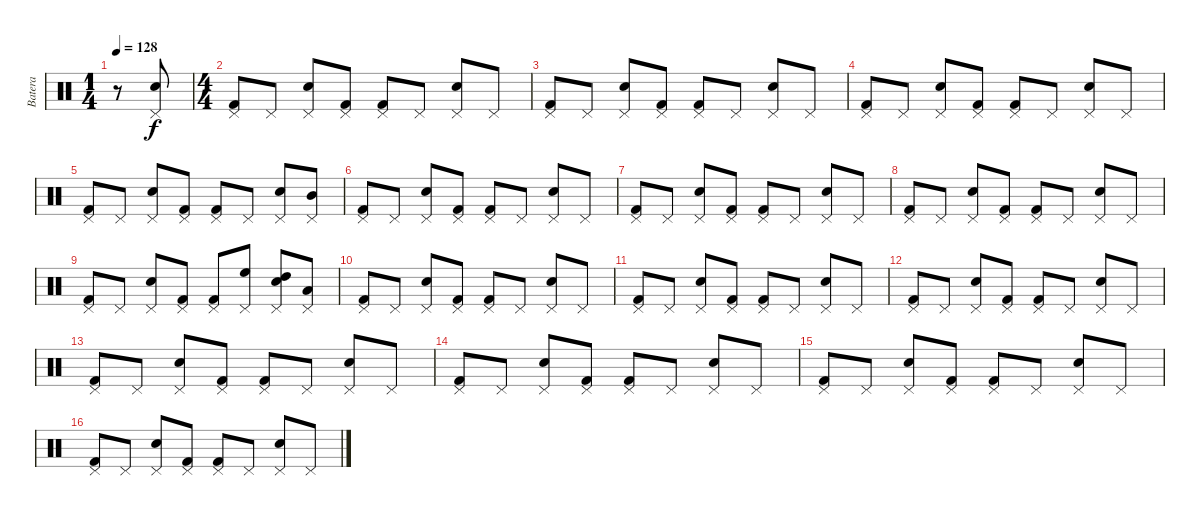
\track ("Batera" "Batera") {instrument percussion}
\staff {score}
\articulation defaults
\ts (1 4)
\tempo 128
\clef neutral
\ks c
r.8{dy f} ("Pedal Hi-Hat (hit)" "Snare (hit) 2").8 |
\ts (4 4)
("Pedal Hi-Hat (hit)" "Kick (hit) 2").8 "Pedal Hi-Hat (hit)".8 ("Pedal Hi-Hat (hit)" "Snare (hit) 2").8 ("Pedal Hi-Hat (hit)" "Kick (hit) 2").8 ("Pedal Hi-Hat (hit)" "Kick (hit) 2").8 "Pedal Hi-Hat (hit)".8 ("Pedal Hi-Hat (hit)" "Snare (hit) 2").8 "Pedal Hi-Hat (hit)".8 |
("Pedal Hi-Hat (hit)" "Kick (hit) 2").8 "Pedal Hi-Hat (hit)".8 ("Pedal Hi-Hat (hit)" "Snare (hit) 2").8 ("Pedal Hi-Hat (hit)" "Kick (hit) 2").8 ("Pedal Hi-Hat (hit)" "Kick (hit) 2").8 "Pedal Hi-Hat (hit)".8 ("Pedal Hi-Hat (hit)" "Snare (hit) 2").8 "Pedal Hi-Hat (hit)".8 |
("Pedal Hi-Hat (hit)" "Kick (hit) 2").8 "Pedal Hi-Hat (hit)".8 ("Pedal Hi-Hat (hit)" "Snare (hit) 2").8 ("Pedal Hi-Hat (hit)" "Kick (hit) 2").8 ("Pedal Hi-Hat (hit)" "Kick (hit) 2").8 "Pedal Hi-Hat (hit)".8 ("Pedal Hi-Hat (hit)" "Snare (hit) 2").8 "Pedal Hi-Hat (hit)".8 |
("Pedal Hi-Hat (hit)" "Kick (hit) 2").8 "Pedal Hi-Hat (hit)".8 ("Pedal Hi-Hat (hit)" "Snare (hit) 2").8 ("Pedal Hi-Hat (hit)" "Kick (hit) 2").8 ("Pedal Hi-Hat (hit)" "Kick (hit) 2").8 "Pedal Hi-Hat (hit)".8 ("Pedal Hi-Hat (hit)" "Snare (hit) 2").8 ("Mid Tom (hit)" "Pedal Hi-Hat (hit)").8 |
("Pedal Hi-Hat (hit)" "Kick (hit) 2").8 "Pedal Hi-Hat (hit)".8 ("Pedal Hi-Hat (hit)" "Snare (hit) 2").8 ("Pedal Hi-Hat (hit)" "Kick (hit) 2").8 ("Pedal Hi-Hat (hit)" "Kick (hit) 2").8 "Pedal Hi-Hat (hit)".8 ("Pedal Hi-Hat (hit)" "Snare (hit) 2").8 "Pedal Hi-Hat (hit)".8 |
("Pedal Hi-Hat (hit)" "Kick (hit) 2").8 "Pedal Hi-Hat (hit)".8 ("Pedal Hi-Hat (hit)" "Snare (hit) 2").8 ("Pedal Hi-Hat (hit)" "Kick (hit) 2").8 ("Pedal Hi-Hat (hit)" "Kick (hit) 2").8 "Pedal Hi-Hat (hit)".8 ("Pedal Hi-Hat (hit)" "Snare (hit) 2").8 "Pedal Hi-Hat (hit)".8 |
("Pedal Hi-Hat (hit)" "Kick (hit) 2").8 "Pedal Hi-Hat (hit)".8 ("Pedal Hi-Hat (hit)" "Snare (hit) 2").8 ("Pedal Hi-Hat (hit)" "Kick (hit) 2").8 ("Pedal Hi-Hat (hit)" "Kick (hit) 2").8 "Pedal Hi-Hat (hit)".8 ("Pedal Hi-Hat (hit)" "Snare (hit) 2").8 "Pedal Hi-Hat (hit)".8 |
("Pedal Hi-Hat (hit)" "Kick (hit) 2").8 "Pedal Hi-Hat (hit)".8 ("Pedal Hi-Hat (hit)" "Snare (hit) 2").8 ("Pedal Hi-Hat (hit)" "Kick (hit) 2").8 ("Pedal Hi-Hat (hit)" "Kick (hit) 2").8 ("High Floor Tom (hit)" "Pedal Hi-Hat (hit)").8 ("High Tom (hit)" "Pedal Hi-Hat (hit)" "Snare (hit) 2").8 ("Low Tom (hit)" "Pedal Hi-Hat (hit)").8 |
("Pedal Hi-Hat (hit)" "Kick (hit) 2").8 "Pedal Hi-Hat (hit)".8 ("Pedal Hi-Hat (hit)" "Snare (hit) 2").8 ("Pedal Hi-Hat (hit)" "Kick (hit) 2").8 ("Pedal Hi-Hat (hit)" "Kick (hit) 2").8 "Pedal Hi-Hat (hit)".8 ("Pedal Hi-Hat (hit)" "Snare (hit) 2").8 "Pedal Hi-Hat (hit)".8 |
("Pedal Hi-Hat (hit)" "Kick (hit) 2").8 "Pedal Hi-Hat (hit)".8 ("Pedal Hi-Hat (hit)" "Snare (hit) 2").8 ("Pedal Hi-Hat (hit)" "Kick (hit) 2").8 ("Pedal Hi-Hat (hit)" "Kick (hit) 2").8 "Pedal Hi-Hat (hit)".8 ("Pedal Hi-Hat (hit)" "Snare (hit) 2").8 "Pedal Hi-Hat (hit)".8 |
("Pedal Hi-Hat (hit)" "Kick (hit) 2").8 "Pedal Hi-Hat (hit)".8 ("Pedal Hi-Hat (hit)" "Snare (hit) 2").8 ("Pedal Hi-Hat (hit)" "Kick (hit) 2").8 ("Pedal Hi-Hat (hit)" "Kick (hit) 2").8 "Pedal Hi-Hat (hit)".8 ("Pedal Hi-Hat (hit)" "Snare (hit) 2").8 "Pedal Hi-Hat (hit)".8 |
("Pedal Hi-Hat (hit)" "Kick (hit) 2").8 "Pedal Hi-Hat (hit)".8 ("Pedal Hi-Hat (hit)" "Snare (hit) 2").8 ("Pedal Hi-Hat (hit)" "Kick (hit) 2").8 ("Pedal Hi-Hat (hit)" "Kick (hit) 2").8 "Pedal Hi-Hat (hit)".8 ("Pedal Hi-Hat (hit)" "Snare (hit) 2").8 "Pedal Hi-Hat (hit)".8 |
("Pedal Hi-Hat (hit)" "Kick (hit) 2").8 "Pedal Hi-Hat (hit)".8 ("Pedal Hi-Hat (hit)" "Snare (hit) 2").8 ("Pedal Hi-Hat (hit)" "Kick (hit) 2").8 ("Pedal Hi-Hat (hit)" "Kick (hit) 2").8 "Pedal Hi-Hat (hit)".8 ("Pedal Hi-Hat (hit)" "Snare (hit) 2").8 "Pedal Hi-Hat (hit)".8 |
("Pedal Hi-Hat (hit)" "Kick (hit) 2").8 "Pedal Hi-Hat (hit)".8 ("Pedal Hi-Hat (hit)" "Snare (hit) 2").8 ("Pedal Hi-Hat (hit)" "Kick (hit) 2").8 ("Pedal Hi-Hat (hit)" "Kick (hit) 2").8 "Pedal Hi-Hat (hit)".8 ("Pedal Hi-Hat (hit)" "Snare (hit) 2").8 "Pedal Hi-Hat (hit)".8 |
("Pedal Hi-Hat (hit)" "Kick (hit) 2").8 "Pedal Hi-Hat (hit)".8 ("Pedal Hi-Hat (hit)" "Snare (hit) 2").8 ("Pedal Hi-Hat (hit)" "Kick (hit) 2").8 ("Pedal Hi-Hat (hit)" "Kick (hit) 2").8 "Pedal Hi-Hat (hit)".8 ("Pedal Hi-Hat (hit)" "Snare (hit) 2").8 "Pedal Hi-Hat (hit)".8
